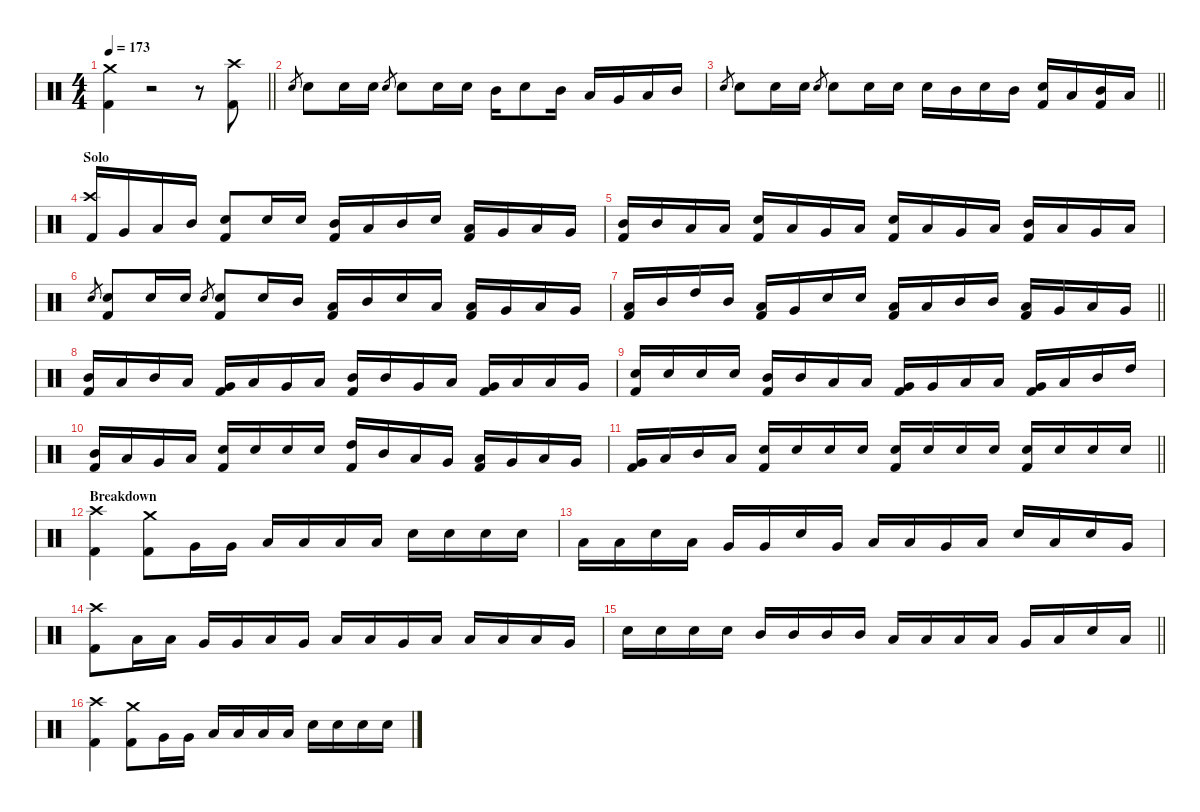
\defaultSystemsLayout 4
\hideDynamics
\bracketExtendMode nobrackets
\singleTrackTrackNamePolicy hidden
\multiTrackTrackNamePolicy hidden
\firstSystemTrackNameMode fullname
\firstSystemTrackNameOrientation horizontal
\otherSystemsTrackNameOrientation horizontal
\track ("Bill Ward" "drm.") {instrument percussion}
\staff {score}
\articulation defaults
\ts (4 4)
\tempo 173
\clef neutral
\barLineRight lightlight
\ks c
("Kick (hit) 2" "Crash medium (hit)").4{dy f beam Down} r.2{beam Down} r.8{beam Down} ("Kick (hit) 2" "Crash high (hit)").8{beam Down} |
"Snare (hit) 2".8{gr dy mp beam Up} "Snare (hit) 2".8{dy f beam Down} "Snare (hit) 2".16{beam Down} "Snare (hit) 2".16{beam Down} "Snare (hit) 2".8{gr dy mp beam Up} "Snare (hit) 2".8{dy f beam Down} "Snare (hit) 2".16{beam Down} "Snare (hit) 2".16{beam Down} "Mid Tom (hit)".16{beam Down} "Snare (hit) 2".8{beam Down} "Mid Tom (hit)".16{beam Down} "Low Tom (hit)".16{beam Up} "Very Low Tom (hit)".16{beam Up} "Low Tom (hit)".16{beam Up} "Mid Tom (hit)".16{beam Up} |
\barLineRight lightlight "Snare (hit) 2".8{gr dy mp beam Up} "Snare (hit) 2".8{dy f beam Down} "Snare (hit) 2".16{beam Down} "Snare (hit) 2".16{beam Down} "Snare (hit) 2".8{gr dy mp beam Up} "Snare (hit) 2".8{dy f beam Down} "Snare (hit) 2".16{beam Down} "Snare (hit) 2".16{beam Down} "Snare (hit) 2".16{beam Down} "Mid Tom (hit)".16{beam Down} "Snare (hit) 2".16{beam Down} "Mid Tom (hit)".16{beam Down}
("Snare (hit) 2" "Kick (hit) 2").16{beam Up} "Low Tom (hit)".16{beam Up} ("Mid Tom (hit)" "Kick (hit) 2").16{beam Up} "Low Tom (hit)".16{beam Up} |
\section ("" "Solo")
("Kick (hit) 2" "Crash high (hit)").16{beam Up} "Very Low Tom (hit)".16{beam Up} "Low Tom (hit)".16{beam Up} "Mid Tom (hit)".16{beam Up} ("Snare (hit) 2" "Kick (hit) 2").8{beam Up} "Snare (hit) 2".16{beam Up} "Snare (hit) 2".16{beam Up} ("Mid Tom (hit)" "Kick (hit) 2").16{beam Up} "Low Tom (hit)".16{beam Up} "Mid Tom (hit)".16{beam Up} "Snare (hit) 2".16{beam Up} ("Low Tom (hit)" "Kick (hit) 2").16{beam Up} "Very Low Tom (hit)".16{beam Up} "Low Floor Tom (hit)".16{beam Up} "Very Low Tom (hit)".16{beam Up} |
("Mid Tom (hit)" "Kick (hit) 2").16{beam Up} "Mid Tom (hit)".16{beam Up} "Low Tom (hit)".16{beam Up} "Low Tom (hit)".16{beam Up} ("Snare (hit) 2" "Kick (hit) 2").16{beam Up} "Low Tom (hit)".16{beam Up} "Very Low Tom (hit)".16{beam Up} "Low Floor Tom (hit)".16{beam Up} ("Snare (hit) 2" "Kick (hit) 2").16{beam Up} "Low Floor Tom (hit)".16{beam Up} "Very Low Tom (hit)".16{beam Up} "Low Tom (hit)".16{beam Up} ("Mid Tom (hit)" "Kick (hit) 2").16{beam Up} "Low Tom (hit)".16{beam Up} "Very Low Tom (hit)".16{beam Up} "Low Tom (hit)".16{beam Up} |
"Snare (hit) 2".8{gr dy mp beam Up} ("Snare (hit) 2" "Kick (hit) 2").8{dy f beam Up} "Snare (hit) 2".16{beam Up} "Snare (hit) 2".16{beam Up} "Snare (hit) 2".8{gr dy mp beam Up} ("Snare (hit) 2" "Kick (hit) 2").8{dy f beam Up} "Snare (hit) 2".16{beam Up} "Mid Tom (hit)".16{beam Up} ("Low Tom (hit)" "Kick (hit) 2").16{beam Up} "Mid Tom (hit)".16{beam Up} "Snare (hit) 2".16{beam Up} "Low Tom (hit)".16{beam Up} ("Low Tom (hit)" "Kick (hit) 2").16{beam Up} "Very Low Tom (hit)".16{beam Up} "Low Tom (hit)".16{beam Up} "Very Low Tom (hit)".16{beam Up} |
\barLineRight lightlight
("Low Tom (hit)" "Kick (hit) 2").16{beam Up} "Mid Tom (hit)".16{beam Up} "High Tom (hit)".16{beam Up} "Mid Tom (hit)".16{beam Up} ("Low Tom (hit)" "Kick (hit) 2").16{beam Up} "Very Low Tom (hit)".16{beam Up} "Snare (hit) 2".16{beam Up} "Snare (hit) 2".16{beam Up} ("Low Tom (hit)" "Kick (hit) 2").16{beam Up} "Low Tom (hit)".16{beam Up} "Mid Tom (hit)".16{beam Up} "Mid Tom (hit)".16{beam Up} ("Low Tom (hit)" "Kick (hit) 2").16{beam Up} "Very Low Tom (hit)".16{beam Up} "Low Floor Tom (hit)".16{beam Up} "Very Low Tom (hit)".16{beam Up} |
("Mid Tom (hit)" "Kick (hit) 2").16{beam Up} "Low Tom (hit)".16{beam Up} "Mid Tom (hit)".16{beam Up} "Low Tom (hit)".16{beam Up} ("Very Low Tom (hit)" "Kick (hit) 2").16{beam Up} "Low Floor Tom (hit)".16{beam Up} "Very Low Tom (hit)".16{beam Up} "Low Tom (hit)".16{beam Up} ("Mid Tom (hit)" "Kick (hit) 2").16{beam Up} "Mid Tom (hit)".16{beam Up} "Very Low Tom (hit)".16{beam Up} "Low Tom (hit)".16{beam Up} ("Very Low Tom (hit)" "Kick (hit) 2").16{beam Up} "Low Tom (hit)".16{beam Up} "Low Floor Tom (hit)".16{beam Up} "Very Low Tom (hit)".16{beam Up} |
("Snare (hit) 2" "Kick (hit) 2").16{beam Up} "Snare (hit) 2".16{beam Up} "Snare (hit) 2".16{beam Up} "Snare (hit) 2".16{beam Up} ("Mid Tom (hit)" "Kick (hit) 2").16{beam Up} "Mid Tom (hit)".16{beam Up} "Low Tom (hit)".16{beam Up} "Low Tom (hit)".16{beam Up} ("Very Low Tom (hit)" "Kick (hit) 2").16{beam Up} "Very Low Tom (hit)".16{beam Up} "Low Floor Tom (hit)".16{beam Up} "Low Floor Tom (hit)".16{beam Up} ("Very Low Tom (hit)" "Kick (hit) 2").16{beam Up} "Low Tom (hit)".16{beam Up} "Mid Tom (hit)".16{beam Up} "High Tom (hit)".16{beam Up} |
("Mid Tom (hit)" "Kick (hit) 2").16{beam Up} "Low Tom (hit)".16{beam Up} "Very Low Tom (hit)".16{beam Up} "Low Floor Tom (hit)".16{beam Up} ("Snare (hit) 2" "Kick (hit) 2").16{beam Up} "Snare (hit) 2".16{beam Up} "Snare (hit) 2".16{beam Up} "Snare (hit) 2".16{beam Up} ("High Tom (hit)" "Kick (hit) 2").16{beam Up} "Mid Tom (hit)".16{beam Up} "Low Tom (hit)".16{beam Up} "Very Low Tom (hit)".16{beam Up} ("Low Floor Tom (hit)" "Kick (hit) 2").16{beam Up} "Very Low Tom (hit)".16{beam Up} "Low Floor Tom (hit)".16{beam Up} "Very Low Tom (hit)".16{beam Up} |
\barLineRight lightlight
("Very Low Tom (hit)" "Kick (hit) 2").16{beam Up} "Low Tom (hit)".16{beam Up} "Mid Tom (hit)".16{beam Up} "Low Tom (hit)".16{beam Up} ("Snare (hit) 2" "Kick (hit) 2").16{beam Up} "Snare (hit) 2".16{beam Up} "Snare (hit) 2".16{beam Up} "Snare (hit) 2".16{beam Up} ("Snare (hit) 2" "Kick (hit) 2").16{beam Up} "Snare (hit) 2".16{beam Up} "Snare (hit) 2".16{beam Up} "Snare (hit) 2".16{beam Up} ("Snare (hit) 2" "Kick (hit) 2").16{beam Up} "Snare (hit) 2".16{beam Up} "Snare (hit) 2".16{beam Up} "Snare (hit) 2".16{beam Up} |
\section ("" "Breakdown")
("Kick (hit) 2" "Crash high (hit)").4{beam Down} ("Kick (hit) 2" "Crash medium (hit)").8{beam Down} "Very Low Tom (hit)".16{beam Down} "Very Low Tom (hit)".16{beam Down} "Low Tom (hit)".16{beam Up} "Low Tom (hit)".16{beam Up} "Low Tom (hit)".16{beam Up} "Low Tom (hit)".16{beam Up} "Snare (hit) 2".16{beam Down} "Snare (hit) 2".16{beam Down} "Snare (hit) 2".16{beam Down} "Snare (hit) 2".16{beam Down} |
"Low Tom (hit)".16{beam Down} "Low Tom (hit)".16{beam Down} "Snare (hit) 2".16{beam Down} "Low Tom (hit)".16{beam Down} "Very Low Tom (hit)".16{beam Up} "Very Low Tom (hit)".16{beam Up} "Snare (hit) 2".16{beam Up} "Very Low Tom (hit)".16{beam Up} "Low Floor Tom (hit)".16{beam Up} "Low Floor Tom (hit)".16{beam Up} "Very Low Tom (hit)".16{beam Up} "Low Floor Tom (hit)".16{beam Up} "Snare (hit) 2".16{beam Up} "Low Tom (hit)".16{beam Up} "Snare (hit) 2".16{beam Up} "Very Low Tom (hit)".16{beam Up} |
("Kick (hit) 2" "Crash high (hit)").8{beam Down} "Low Tom (hit)".16{beam Down} "Low Tom (hit)".16{beam Down} "Very Low Tom (hit)".16{beam Up} "Very Low Tom (hit)".16{beam Up} "Low Tom (hit)".16{beam Up} "Very Low Tom (hit)".16{beam Up} "Low Floor Tom (hit)".16{beam Up} "Low Floor Tom (hit)".16{beam Up} "Very Low Tom (hit)".16{beam Up} "Low Floor Tom (hit)".16{beam Up} "Low Tom (hit)".16{beam Up} "Low Tom (hit)".16{beam Up} "Low Tom (hit)".16{beam Up} "Very Low Tom (hit)".16{beam Up} |
\barLineRight lightlight "Snare (hit) 2".16{beam Down} "Snare (hit) 2".16{beam Down} "Snare (hit) 2".16{beam Down} "Snare (hit) 2".16{beam Down} "Mid Tom (hit)".16{beam Up} "Mid Tom (hit)".16{beam Up} "Mid Tom (hit)".16{beam Up} "Mid Tom (hit)".16{beam Up} "Low Tom (hit)".16{beam Up} "Low Tom (hit)".16{beam Up} "Low Tom (hit)".16{beam Up} "Low Tom (hit)".16{beam Up} "Very Low Tom (hit)".16{beam Up} "Low Tom (hit)".16{beam Up} "Snare (hit) 2".16{beam Up} "Low Tom (hit)".16{beam Up}
|
("Kick (hit) 2" "Crash high (hit)").4{beam Down} ("Kick (hit) 2" "Crash medium (hit)").8{beam Down} "Very Low Tom (hit)".16{beam Down} "Very Low Tom (hit)".16{beam Down} "Low Tom (hit)".16{beam Up} "Low Tom (hit)".16{beam Up} "Low Tom (hit)".16{beam Up} "Low Tom (hit)".16{beam Up} "Snare (hit) 2".16{beam Down} "Snare (hit) 2".16{beam Down} "Snare (hit) 2".16{beam Down} "Snare (hit) 2".16{beam Down}
